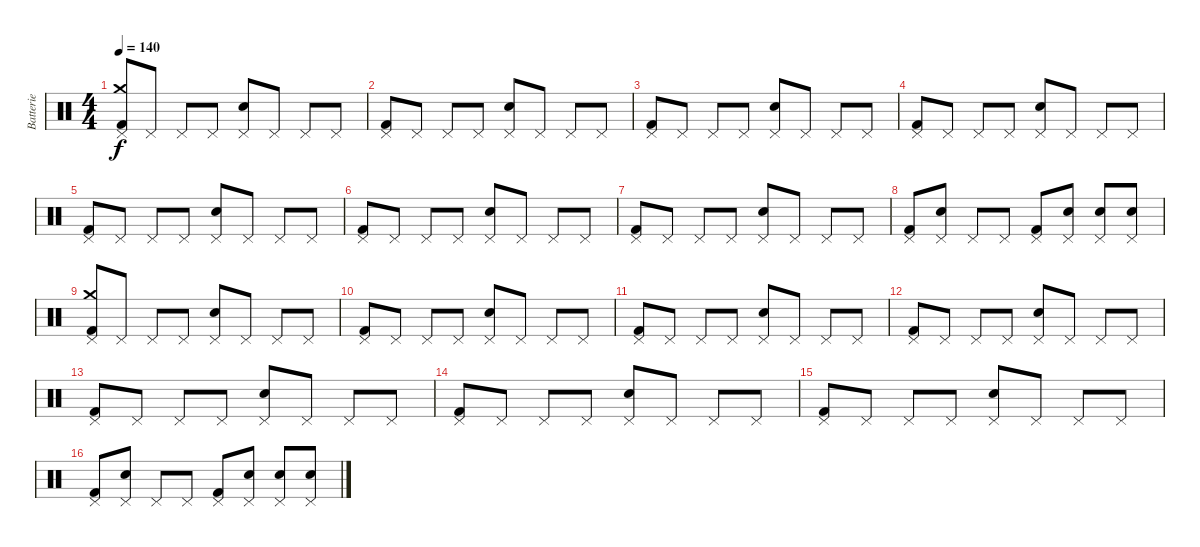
\track ("Batterie" "Batterie") {instrument percussion}
\staff {score}
\articulation defaults
\ts (4 4)
\tempo 140
\clef neutral
\ks c
("Kick (hit) 2" "Crash medium (hit)" "Pedal Hi-Hat (hit)").8{dy f} "Pedal Hi-Hat (hit)".8 "Pedal Hi-Hat (hit)".8 "Pedal Hi-Hat (hit)".8 ("Electric Snare (hit)" "Pedal Hi-Hat (hit)").8 "Pedal Hi-Hat (hit)".8 "Pedal Hi-Hat (hit)".8 "Pedal Hi-Hat (hit)".8 |
("Kick (hit) 2" "Pedal Hi-Hat (hit)").8 "Pedal Hi-Hat (hit)".8 "Pedal Hi-Hat (hit)".8 "Pedal Hi-Hat (hit)".8 ("Electric Snare (hit)" "Pedal Hi-Hat (hit)").8 "Pedal Hi-Hat (hit)".8 "Pedal Hi-Hat (hit)".8 "Pedal Hi-Hat (hit)".8 |
("Kick (hit) 2" "Pedal Hi-Hat (hit)").8 "Pedal Hi-Hat (hit)".8 "Pedal Hi-Hat (hit)".8 "Pedal Hi-Hat (hit)".8 ("Electric Snare (hit)" "Pedal Hi-Hat (hit)").8 "Pedal Hi-Hat (hit)".8 "Pedal Hi-Hat (hit)".8 "Pedal Hi-Hat (hit)".8 |
("Kick (hit) 2" "Pedal Hi-Hat (hit)").8 "Pedal Hi-Hat (hit)".8 "Pedal Hi-Hat (hit)".8 "Pedal Hi-Hat (hit)".8 ("Electric Snare (hit)" "Pedal Hi-Hat (hit)").8 "Pedal Hi-Hat (hit)".8 "Pedal Hi-Hat (hit)".8 "Pedal Hi-Hat (hit)".8 |
("Kick (hit) 2" "Pedal Hi-Hat (hit)").8 "Pedal Hi-Hat (hit)".8 "Pedal Hi-Hat (hit)".8 "Pedal Hi-Hat (hit)".8 ("Electric Snare (hit)" "Pedal Hi-Hat (hit)").8 "Pedal Hi-Hat (hit)".8 "Pedal Hi-Hat (hit)".8 "Pedal Hi-Hat (hit)".8 |
("Kick (hit) 2" "Pedal Hi-Hat (hit)").8 "Pedal Hi-Hat (hit)".8 "Pedal Hi-Hat (hit)".8 "Pedal Hi-Hat (hit)".8 ("Electric Snare (hit)" "Pedal Hi-Hat (hit)").8 "Pedal Hi-Hat (hit)".8 "Pedal Hi-Hat (hit)".8 "Pedal Hi-Hat (hit)".8 |
("Kick (hit) 2" "Pedal Hi-Hat (hit)").8 "Pedal Hi-Hat (hit)".8 "Pedal Hi-Hat (hit)".8 "Pedal Hi-Hat (hit)".8 ("Electric Snare (hit)" "Pedal Hi-Hat (hit)").8 "Pedal Hi-Hat (hit)".8 "Pedal Hi-Hat (hit)".8 "Pedal Hi-Hat (hit)".8 |
("Kick (hit) 2" "Pedal Hi-Hat (hit)").8 ("Electric Snare (hit)" "Pedal Hi-Hat (hit)").8 "Pedal Hi-Hat (hit)".8 "Pedal Hi-Hat (hit)".8 ("Kick (hit) 2" "Pedal Hi-Hat (hit)").8 ("Electric Snare (hit)" "Pedal Hi-Hat (hit)").8 ("Electric Snare (hit)" "Pedal Hi-Hat (hit)").8 ("Electric Snare (hit)" "Pedal Hi-Hat (hit)").8 |
("Kick (hit) 2" "Crash medium (hit)" "Pedal Hi-Hat (hit)").8 "Pedal Hi-Hat (hit)".8 "Pedal Hi-Hat (hit)".8 "Pedal Hi-Hat (hit)".8 ("Electric Snare (hit)" "Pedal Hi-Hat (hit)").8 "Pedal Hi-Hat (hit)".8 "Pedal Hi-Hat (hit)".8 "Pedal Hi-Hat (hit)".8 |
("Kick (hit) 2" "Pedal Hi-Hat (hit)").8 "Pedal Hi-Hat (hit)".8 "Pedal Hi-Hat (hit)".8 "Pedal Hi-Hat (hit)".8 ("Electric Snare (hit)" "Pedal Hi-Hat (hit)").8 "Pedal Hi-Hat (hit)".8 "Pedal Hi-Hat (hit)".8 "Pedal Hi-Hat (hit)".8 |
("Kick (hit) 2" "Pedal Hi-Hat (hit)").8 "Pedal Hi-Hat (hit)".8 "Pedal Hi-Hat (hit)".8 "Pedal Hi-Hat (hit)".8 ("Electric Snare (hit)" "Pedal Hi-Hat (hit)").8 "Pedal Hi-Hat (hit)".8 "Pedal Hi-Hat (hit)".8 "Pedal Hi-Hat (hit)".8 |
("Kick (hit) 2" "Pedal Hi-Hat (hit)").8 "Pedal Hi-Hat (hit)".8 "Pedal Hi-Hat (hit)".8 "Pedal Hi-Hat (hit)".8 ("Electric Snare (hit)" "Pedal Hi-Hat (hit)").8 "Pedal Hi-Hat (hit)".8 "Pedal Hi-Hat (hit)".8 "Pedal Hi-Hat (hit)".8 |
("Kick (hit) 2" "Pedal Hi-Hat (hit)").8 "Pedal Hi-Hat (hit)".8 "Pedal Hi-Hat (hit)".8 "Pedal Hi-Hat (hit)".8 ("Electric Snare (hit)" "Pedal Hi-Hat (hit)").8 "Pedal Hi-Hat (hit)".8 "Pedal Hi-Hat (hit)".8 "Pedal Hi-Hat (hit)".8 |
("Kick (hit) 2" "Pedal Hi-Hat (hit)").8 "Pedal Hi-Hat (hit)".8 "Pedal Hi-Hat (hit)".8 "Pedal Hi-Hat (hit)".8 ("Electric Snare (hit)" "Pedal Hi-Hat (hit)").8 "Pedal Hi-Hat (hit)".8 "Pedal Hi-Hat (hit)".8 "Pedal Hi-Hat (hit)".8 |
("Kick (hit) 2" "Pedal Hi-Hat (hit)").8 "Pedal Hi-Hat (hit)".8 "Pedal Hi-Hat (hit)".8 "Pedal Hi-Hat (hit)".8 ("Electric Snare (hit)" "Pedal Hi-Hat (hit)").8 "Pedal Hi-Hat (hit)".8 "Pedal Hi-Hat (hit)".8 "Pedal Hi-Hat (hit)".8 |
("Kick (hit) 2" "Pedal Hi-Hat (hit)").8 ("Electric Snare (hit)" "Pedal Hi-Hat (hit)").8 "Pedal Hi-Hat (hit)".8 "Pedal Hi-Hat (hit)".8 ("Kick (hit) 2" "Pedal Hi-Hat (hit)").8 ("Electric Snare (hit)" "Pedal Hi-Hat (hit)").8 ("Electric Snare (hit)" "Pedal Hi-Hat (hit)").8 ("Electric Snare (hit)" "Pedal Hi-Hat (hit)").8
